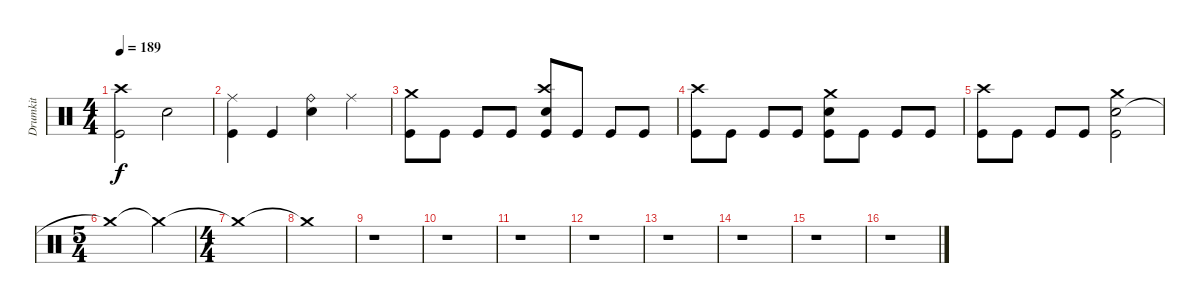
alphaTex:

\track ("Drumkit" "Drumkit") {instrument percussion}
\staff {score}
\articulation defaults
\ts (4 4)
\tempo 189
\clef neutral
\ks c
("Kick (hit)" "Crash high (hit)").2{dy f} "Snare (hit) 2".2 |
("Ride (middle)" "Kick (hit)").4 "Kick (hit)".4 ("Ride (bell)" "Snare (hit) 2").4 "Ride (middle)".4 |
("Kick (hit)" "Crash medium (hit)").8 "Kick (hit)".8 "Kick (hit)".8 "Kick (hit)".8 ("Snare (hit) 2" "Kick (hit)" "Crash high (hit)").8 "Kick (hit)".8 "Kick (hit)".8 "Kick (hit)".8 |
("Kick (hit)" "Crash high (hit)").8 "Kick (hit)".8 "Kick (hit)".8 "Kick (hit)".8 ("Snare (hit) 2" "Kick (hit)" "Crash medium (hit)").8 "Kick (hit)".8 "Kick (hit)".8 "Kick (hit)".8 |
("Kick (hit)" "Crash high (hit)").8 "Kick (hit)".8 "Kick (hit)".8 "Kick (hit)".8 ("Snare (hit) 2" "Kick (hit)" "Crash medium (hit)").2 |
\ts (5 4)
"Crash medium (hit)"{t}.1 "Crash medium (hit)"{t}.4 |
\ts (4 4)
"Crash medium (hit)"{t}.1 |
"Crash medium (hit)"{t}.1 |
r.1 |
r.1 |
r.1 |
r.1 |
r.1 |
r.1 |
r.1 |
r.1
